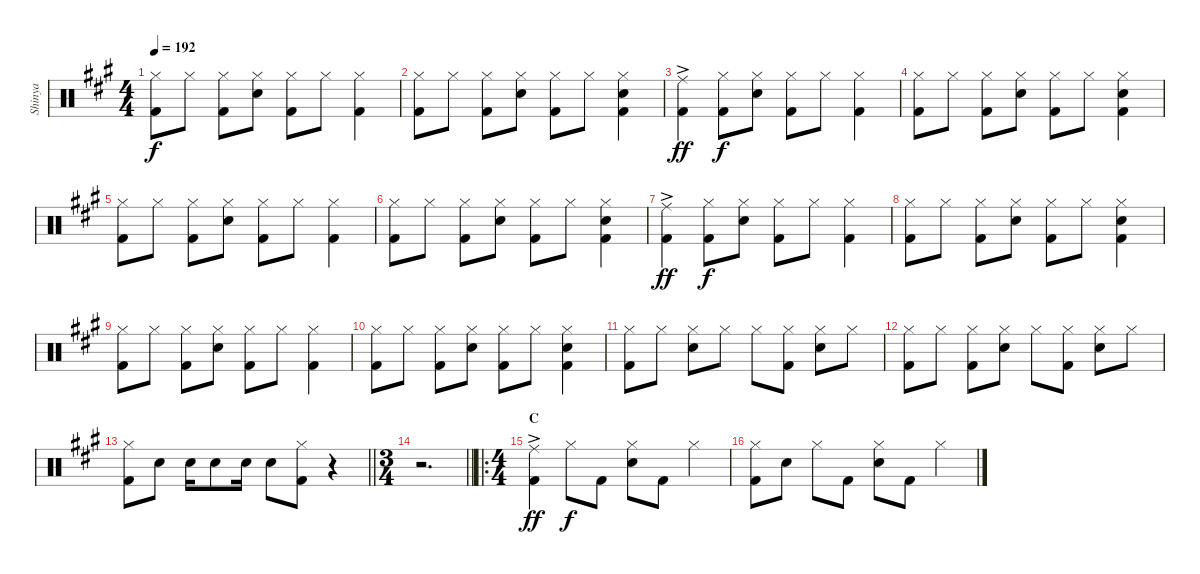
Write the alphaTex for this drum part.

\track ("Shinya" "Shinya") {instrument percussion}
\staff {score}
\articulation defaults
\ts (4 4)
\tempo 192
\clef neutral
\ks a
("Hi-Hat (closed)" "Kick (hit) 2").8{dy f} "Hi-Hat (closed)".8 ("Hi-Hat (closed)" "Kick (hit) 2").8 ("Hi-Hat (closed)" "Snare (hit) 2").8 ("Hi-Hat (closed)" "Kick (hit) 2").8 "Hi-Hat (closed)".8 ("Hi-Hat (closed)" "Kick (hit) 2").4 |
("Hi-Hat (closed)" "Kick (hit) 2").8 "Hi-Hat (closed)".8 ("Hi-Hat (closed)" "Kick (hit) 2").8 ("Hi-Hat (closed)" "Snare (hit) 2").8 ("Hi-Hat (closed)" "Kick (hit) 2").8 "Hi-Hat (closed)".8 ("Hi-Hat (closed)" "Snare (hit) 2" "Kick (hit) 2").4 |
("Ride (middle)"{ac} "Kick (hit) 2").4{dy ff} ("Hi-Hat (closed)" "Kick (hit) 2").8{dy f} ("Hi-Hat (closed)" "Snare (hit) 2").8 ("Hi-Hat (closed)" "Kick (hit) 2").8 "Hi-Hat (closed)".8 ("Hi-Hat (closed)" "Kick (hit) 2").4 |
("Hi-Hat (closed)" "Kick (hit) 2").8 "Hi-Hat (closed)".8 ("Hi-Hat (closed)" "Kick (hit) 2").8 ("Hi-Hat (closed)" "Snare (hit) 2").8 ("Hi-Hat (closed)" "Kick (hit) 2").8 "Hi-Hat (closed)".8 ("Hi-Hat (closed)" "Snare (hit) 2" "Kick (hit) 2").4 |
("Hi-Hat (closed)" "Kick (hit) 2").8 "Hi-Hat (closed)".8 ("Hi-Hat (closed)" "Kick (hit) 2").8 ("Hi-Hat (closed)" "Snare (hit) 2").8 ("Hi-Hat (closed)" "Kick (hit) 2").8 "Hi-Hat (closed)".8 ("Hi-Hat (closed)" "Kick (hit) 2").4 |
("Hi-Hat (closed)" "Kick (hit) 2").8 "Hi-Hat (closed)".8 ("Hi-Hat (closed)" "Kick (hit) 2").8 ("Hi-Hat (closed)" "Snare (hit) 2").8 ("Hi-Hat (closed)" "Kick (hit) 2").8 "Hi-Hat (closed)".8 ("Hi-Hat (closed)" "Snare (hit) 2" "Kick (hit) 2").4 |
("Ride (middle)"{ac} "Kick (hit) 2").4{dy ff} ("Hi-Hat (closed)" "Kick (hit) 2").8{dy f} ("Hi-Hat (closed)" "Snare (hit) 2").8 ("Hi-Hat (closed)" "Kick (hit) 2").8 "Hi-Hat (closed)".8 ("Hi-Hat (closed)" "Kick (hit) 2").4 |
("Hi-Hat (closed)" "Kick (hit) 2").8 "Hi-Hat (closed)".8 ("Hi-Hat (closed)" "Kick (hit) 2").8 ("Hi-Hat (closed)" "Snare (hit) 2").8 ("Hi-Hat (closed)" "Kick (hit) 2").8 "Hi-Hat (closed)".8 ("Hi-Hat (closed)" "Snare (hit) 2" "Kick (hit) 2").4 |
("Hi-Hat (closed)" "Kick (hit) 2").8 "Hi-Hat (closed)".8 ("Hi-Hat (closed)" "Kick (hit) 2").8 ("Hi-Hat (closed)" "Snare (hit) 2").8 ("Hi-Hat (closed)" "Kick (hit) 2").8 "Hi-Hat (closed)".8 ("Hi-Hat (closed)" "Kick (hit) 2").4 |
("Hi-Hat (closed)" "Kick (hit) 2").8 "Hi-Hat (closed)".8 ("Hi-Hat (closed)" "Kick (hit) 2").8 ("Hi-Hat (closed)" "Snare (hit) 2").8 ("Hi-Hat (closed)" "Kick (hit) 2").8 "Hi-Hat (closed)".8 ("Hi-Hat (closed)" "Snare (hit) 2" "Kick (hit) 2").4 |
("Hi-Hat (closed)" "Kick (hit) 2").8 "Hi-Hat (closed)".8 ("Hi-Hat (closed)" "Snare (hit) 2").8 "Hi-Hat (closed)".8 "Hi-Hat (closed)".8 ("Hi-Hat (closed)" "Kick (hit) 2").8 ("Hi-Hat (closed)" "Snare (hit) 2").8 "Hi-Hat (closed)".8 |
("Hi-Hat (closed)" "Kick (hit) 2").8 "Hi-Hat (closed)".8 ("Hi-Hat (closed)" "Kick (hit) 2").8 ("Hi-Hat (closed)" "Snare (hit) 2").8 "Hi-Hat (closed)".8 ("Hi-Hat (closed)" "Kick (hit) 2").8 ("Hi-Hat (closed)" "Snare (hit) 2").8 "Hi-Hat (closed)".8 |
\barLineRight lightlight
("Hi-Hat (closed)" "Kick (hit) 2").8 "Snare (hit) 2".8 "Snare (hit) 2".16 "Snare (hit) 2".8 "Snare (hit) 2".16 "Snare (hit) 2".8 ("Hi-Hat (closed)" "Kick (hit) 2").8 r.4 |
\ts (3 4)
\barLineRight lightlight
r.2{d} |
\ro
\ts (4 4)
\section ("" "C")
("Ride (middle)"{ac} "Kick (hit) 2").4{dy ff} "Hi-Hat (closed)".8{dy f} "Kick (hit) 2".8 ("Hi-Hat (closed)" "Snare (hit) 2").8 "Kick (hit) 2".8 "Hi-Hat (closed)".4 |
("Hi-Hat (closed)" "Kick (hit) 2").8 "Snare (hit) 2".8 "Hi-Hat (closed)".8 "Kick (hit) 2".8 ("Hi-Hat (closed)" "Snare (hit) 2").8 "Kick (hit) 2".8 "Hi-Hat (closed)".4
